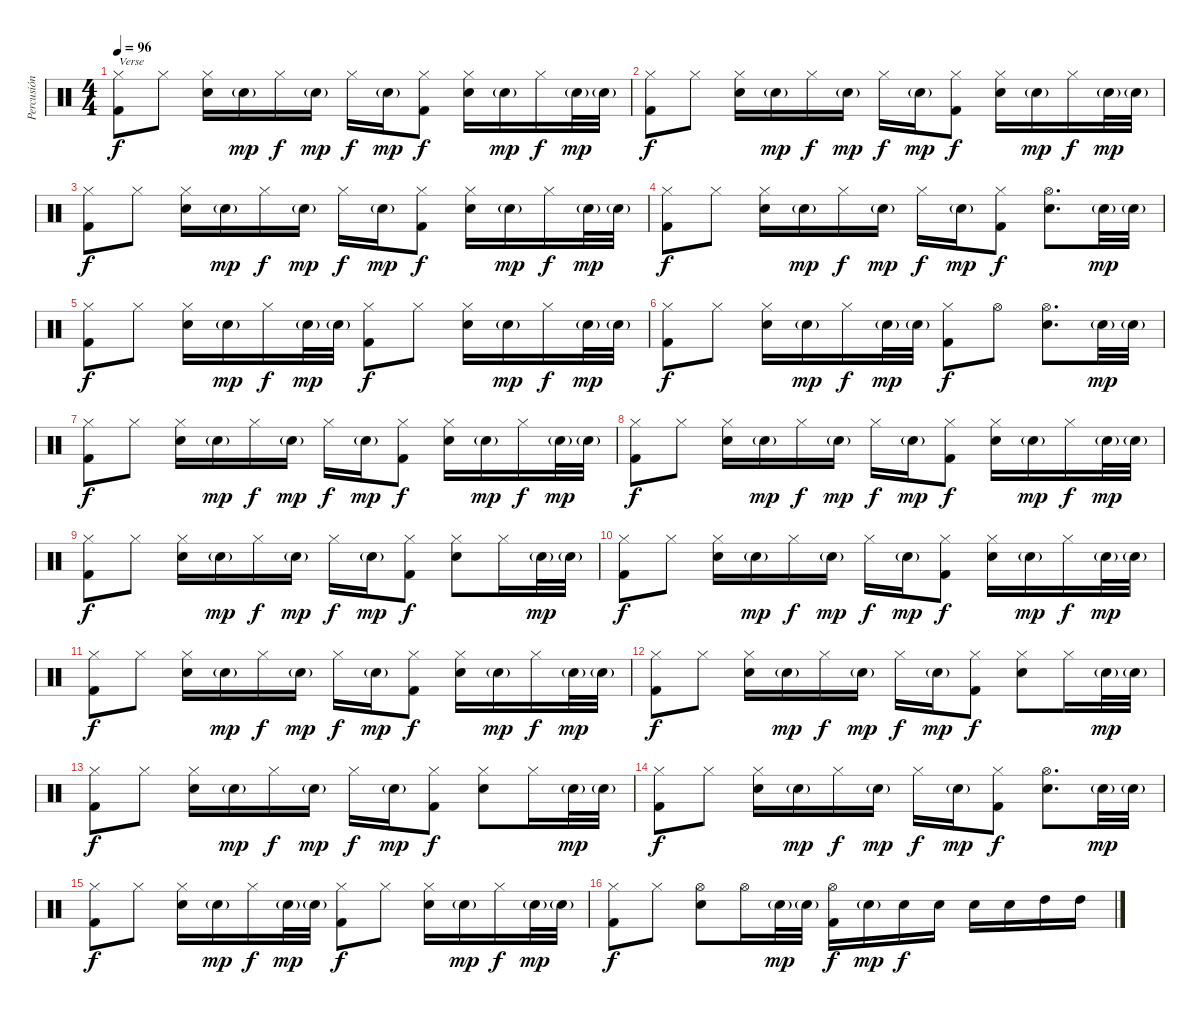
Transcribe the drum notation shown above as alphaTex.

\track ("Percusión" "Percusión") {instrument percussion}
\staff {score}
\articulation defaults
\ts (4 4)
\tempo 96
\clef neutral
\ks c
("Hi-Hat (closed)" "Kick (hit) 2").8{txt "Verse" dy f} "Hi-Hat (closed)".8 ("Hi-Hat (closed)" "Snare (hit) 2").16 "Snare (hit) 2"{g}.16{dy mp} "Hi-Hat (closed)".16{dy f} "Snare (hit) 2"{g}.16{dy mp} "Hi-Hat (closed)".16{dy f} "Snare (hit) 2"{g}.16{dy mp} ("Hi-Hat (closed)" "Kick (hit) 2").8{dy f} ("Hi-Hat (closed)" "Snare (hit) 2").16 "Snare (hit) 2"{g}.16{dy mp} "Hi-Hat (closed)".16{dy f} "Snare (hit) 2"{g}.32{dy mp} "Snare (hit) 2"{g}.32 |
("Hi-Hat (closed)" "Kick (hit) 2").8{dy f} "Hi-Hat (closed)".8 ("Hi-Hat (closed)" "Snare (hit) 2").16 "Snare (hit) 2"{g}.16{dy mp} "Hi-Hat (closed)".16{dy f} "Snare (hit) 2"{g}.16{dy mp} "Hi-Hat (closed)".16{dy f} "Snare (hit) 2"{g}.16{dy mp} ("Hi-Hat (closed)" "Kick (hit) 2").8{dy f} ("Hi-Hat (closed)" "Snare (hit) 2").16 "Snare (hit) 2"{g}.16{dy mp} "Hi-Hat (closed)".16{dy f} "Snare (hit) 2"{g}.32{dy mp} "Snare (hit) 2"{g}.32 |
("Hi-Hat (closed)" "Kick (hit) 2").8{dy f} "Hi-Hat (closed)".8 ("Hi-Hat (closed)" "Snare (hit) 2").16 "Snare (hit) 2"{g}.16{dy mp} "Hi-Hat (closed)".16{dy f} "Snare (hit) 2"{g}.16{dy mp} "Hi-Hat (closed)".16{dy f} "Snare (hit) 2"{g}.16{dy mp} ("Hi-Hat (closed)" "Kick (hit) 2").8{dy f} ("Hi-Hat (closed)" "Snare (hit) 2").16 "Snare (hit) 2"{g}.16{dy mp} "Hi-Hat (closed)".16{dy f} "Snare (hit) 2"{g}.32{dy mp} "Snare (hit) 2"{g}.32 |
("Hi-Hat (closed)" "Kick (hit) 2").8{dy f} "Hi-Hat (closed)".8 ("Hi-Hat (closed)" "Snare (hit) 2").16 "Snare (hit) 2"{g}.16{dy mp} "Hi-Hat (closed)".16{dy f} "Snare (hit) 2"{g}.16{dy mp} "Hi-Hat (closed)".16{dy f} "Snare (hit) 2"{g}.16{dy mp} ("Hi-Hat (closed)" "Kick (hit) 2").8{dy f} ("Hi-Hat (open)" "Snare (hit) 2").8{d} "Snare (hit) 2"{g}.32{dy mp} "Snare (hit) 2"{g}.32 |
("Hi-Hat (closed)" "Kick (hit) 2").8{dy f} "Hi-Hat (closed)".8 ("Hi-Hat (closed)" "Snare (hit) 2").16 "Snare (hit) 2"{g}.16{dy mp} "Hi-Hat (closed)".16{dy f} "Snare (hit) 2"{g}.32{dy mp} "Snare (hit) 2"{g}.32 ("Hi-Hat (closed)" "Kick (hit) 2").8{dy f} "Hi-Hat (closed)".8 ("Hi-Hat (closed)" "Snare (hit) 2").16 "Snare (hit) 2"{g}.16{dy mp} "Hi-Hat (closed)".16{dy f} "Snare (hit) 2"{g}.32{dy mp} "Snare (hit) 2"{g}.32 |
("Hi-Hat (closed)" "Kick (hit) 2").8{dy f} "Hi-Hat (closed)".8 ("Hi-Hat (closed)" "Snare (hit) 2").16 "Snare (hit) 2"{g}.16{dy mp} "Hi-Hat (closed)".16{dy f} "Snare (hit) 2"{g}.32{dy mp} "Snare (hit) 2"{g}.32 ("Hi-Hat (closed)" "Kick (hit) 2").8{dy f} "Hi-Hat (open)".8 ("Hi-Hat (open)" "Snare (hit) 2").8{d} "Snare (hit) 2"{g}.32{dy mp} "Snare (hit) 2"{g}.32 |
("Hi-Hat (closed)" "Kick (hit) 2").8{dy f} "Hi-Hat (closed)".8 ("Hi-Hat (closed)" "Snare (hit) 2").16 "Snare (hit) 2"{g}.16{dy mp} "Hi-Hat (closed)".16{dy f} "Snare (hit) 2"{g}.16{dy mp} "Hi-Hat (closed)".16{dy f} "Snare (hit) 2"{g}.16{dy mp} ("Hi-Hat (closed)" "Kick (hit) 2").8{dy f} ("Hi-Hat (closed)" "Snare (hit) 2").16 "Snare (hit) 2"{g}.16{dy mp} "Hi-Hat (closed)".16{dy f} "Snare (hit) 2"{g}.32{dy mp} "Snare (hit) 2"{g}.32 |
("Hi-Hat (closed)" "Kick (hit) 2").8{dy f} "Hi-Hat (closed)".8 ("Hi-Hat (closed)" "Snare (hit) 2").16 "Snare (hit) 2"{g}.16{dy mp} "Hi-Hat (closed)".16{dy f} "Snare (hit) 2"{g}.16{dy mp} "Hi-Hat (closed)".16{dy f} "Snare (hit) 2"{g}.16{dy mp} ("Hi-Hat (closed)" "Kick (hit) 2").8{dy f} ("Hi-Hat (closed)" "Snare (hit) 2").16 "Snare (hit) 2"{g}.16{dy mp} "Hi-Hat (closed)".16{dy f} "Snare (hit) 2"{g}.32{dy mp} "Snare (hit) 2"{g}.32 |
("Hi-Hat (closed)" "Kick (hit) 2").8{dy f} "Hi-Hat (closed)".8 ("Hi-Hat (closed)" "Snare (hit) 2").16 "Snare (hit) 2"{g}.16{dy mp} "Hi-Hat (closed)".16{dy f} "Snare (hit) 2"{g}.16{dy mp} "Hi-Hat (closed)".16{dy f} "Snare (hit) 2"{g}.16{dy mp} ("Hi-Hat (closed)" "Kick (hit) 2").8{dy f} ("Hi-Hat (closed)" "Snare (hit) 2").8 "Hi-Hat (closed)".16 "Snare (hit) 2"{g}.32{dy mp} "Snare (hit) 2"{g}.32 |
("Hi-Hat (closed)" "Kick (hit) 2").8{dy f} "Hi-Hat (closed)".8 ("Hi-Hat (closed)" "Snare (hit) 2").16 "Snare (hit) 2"{g}.16{dy mp} "Hi-Hat (closed)".16{dy f} "Snare (hit) 2"{g}.16{dy mp} "Hi-Hat (closed)".16{dy f} "Snare (hit) 2"{g}.16{dy mp} ("Hi-Hat (closed)" "Kick (hit) 2").8{dy f} ("Hi-Hat (closed)" "Snare (hit) 2").16 "Snare (hit) 2"{g}.16{dy mp} "Hi-Hat (closed)".16{dy f} "Snare (hit) 2"{g}.32{dy mp} "Snare (hit) 2"{g}.32 |
("Hi-Hat (closed)" "Kick (hit) 2").8{dy f} "Hi-Hat (closed)".8 ("Hi-Hat (closed)" "Snare (hit) 2").16 "Snare (hit) 2"{g}.16{dy mp} "Hi-Hat (closed)".16{dy f} "Snare (hit) 2"{g}.16{dy mp} "Hi-Hat (closed)".16{dy f} "Snare (hit) 2"{g}.16{dy mp} ("Hi-Hat (closed)" "Kick (hit) 2").8{dy f} ("Hi-Hat (closed)" "Snare (hit) 2").16 "Snare (hit) 2"{g}.16{dy mp} "Hi-Hat (closed)".16{dy f} "Snare (hit) 2"{g}.32{dy mp} "Snare (hit) 2"{g}.32 |
("Hi-Hat (closed)" "Kick (hit) 2").8{dy f} "Hi-Hat (closed)".8 ("Hi-Hat (closed)" "Snare (hit) 2").16 "Snare (hit) 2"{g}.16{dy mp} "Hi-Hat (closed)".16{dy f} "Snare (hit) 2"{g}.16{dy mp} "Hi-Hat (closed)".16{dy f} "Snare (hit) 2"{g}.16{dy mp} ("Hi-Hat (closed)" "Kick (hit) 2").8{dy f} ("Hi-Hat (closed)" "Snare (hit) 2").8 "Hi-Hat (closed)".16 "Snare (hit) 2"{g}.32{dy mp} "Snare (hit) 2"{g}.32 |
("Hi-Hat (closed)" "Kick (hit) 2").8{dy f} "Hi-Hat (closed)".8 ("Hi-Hat (closed)" "Snare (hit) 2").16 "Snare (hit) 2"{g}.16{dy mp} "Hi-Hat (closed)".16{dy f} "Snare (hit) 2"{g}.16{dy mp} "Hi-Hat (closed)".16{dy f} "Snare (hit) 2"{g}.16{dy mp} ("Hi-Hat (closed)" "Kick (hit) 2").8{dy f} ("Hi-Hat (closed)" "Snare (hit) 2").8 "Hi-Hat (closed)".16 "Snare (hit) 2"{g}.32{dy mp} "Snare (hit) 2"{g}.32 |
("Hi-Hat (closed)" "Kick (hit) 2").8{dy f} "Hi-Hat (closed)".8 ("Hi-Hat (closed)" "Snare (hit) 2").16 "Snare (hit) 2"{g}.16{dy mp} "Hi-Hat (closed)".16{dy f} "Snare (hit) 2"{g}.16{dy mp} "Hi-Hat (closed)".16{dy f} "Snare (hit) 2"{g}.16{dy mp} ("Hi-Hat (closed)" "Kick (hit) 2").8{dy f} ("Hi-Hat (open)" "Snare (hit) 2").8{d} "Snare (hit) 2"{g}.32{dy mp} "Snare (hit) 2"{g}.32 |
("Hi-Hat (closed)" "Kick (hit) 2").8{dy f} "Hi-Hat (closed)".8 ("Hi-Hat (closed)" "Snare (hit) 2").16 "Snare (hit) 2"{g}.16{dy mp} "Hi-Hat (closed)".16{dy f} "Snare (hit) 2"{g}.32{dy mp} "Snare (hit) 2"{g}.32 ("Hi-Hat (closed)" "Kick (hit) 2").8{dy f} "Hi-Hat (closed)".8 ("Hi-Hat (closed)" "Snare (hit) 2").16 "Snare (hit) 2"{g}.16{dy mp} "Hi-Hat (closed)".16{dy f} "Snare (hit) 2"{g}.32{dy mp} "Snare (hit) 2"{g}.32 |
("Hi-Hat (closed)" "Kick (hit) 2").8{dy f} "Hi-Hat (closed)".8 ("Hi-Hat (open)" "Snare (hit) 2").8 "Hi-Hat (open)".16 "Snare (hit) 2"{g}.32{dy mp} "Snare (hit) 2"{g}.32 ("Hi-Hat (open)" "Kick (hit) 2").16{dy f} "Snare (hit) 2"{g}.16{dy mp} "Snare (hit) 2".16{dy f} "Snare (hit) 2".16 "Snare (hit) 2".16 "Snare (hit) 2".16 "High Tom (hit)".16 "High Tom (hit)".16
